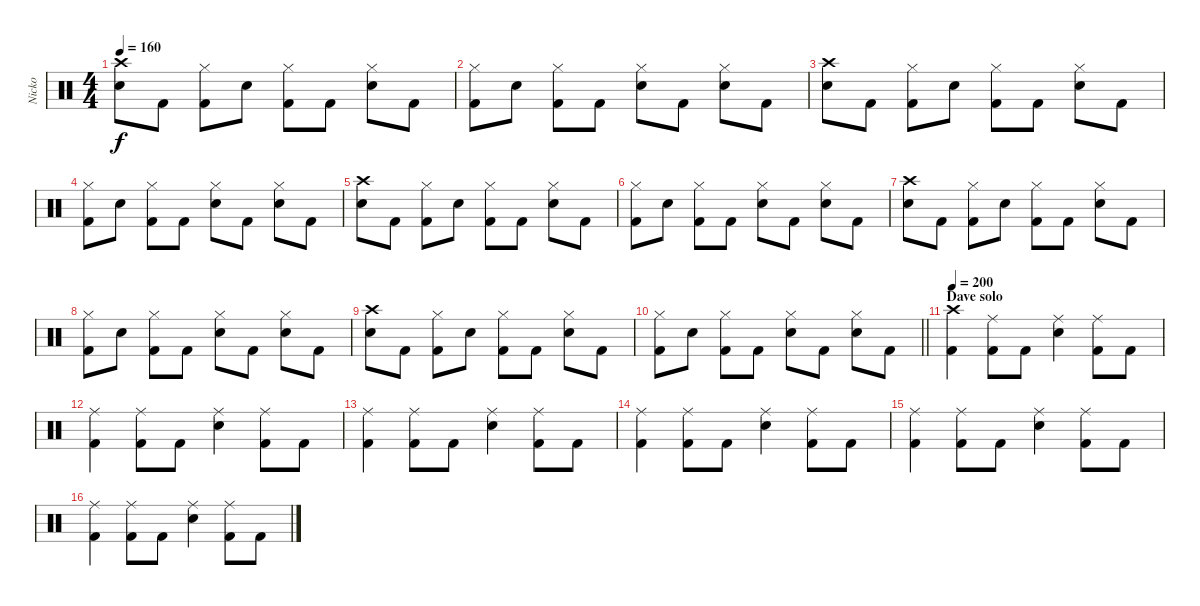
\track ("Nicko" "Nicko") {instrument percussion}
\staff {score}
\articulation defaults
\ts (4 4)
\tempo 160
\clef neutral
\ks c
("Crash high (hit)" "Snare (hit) 2").8{dy f} "Kick (hit) 2".8 ("Hi-Hat (closed)" "Kick (hit) 2").8 "Snare (hit) 2".8 ("Hi-Hat (closed)" "Kick (hit) 2").8 "Kick (hit) 2".8 ("Hi-Hat (closed)" "Snare (hit) 2").8 "Kick (hit) 2".8 |
("Hi-Hat (closed)" "Kick (hit) 2").8 "Snare (hit) 2".8 ("Hi-Hat (closed)" "Kick (hit) 2").8 "Kick (hit) 2".8 ("Hi-Hat (closed)" "Snare (hit) 2").8 "Kick (hit) 2".8 ("Hi-Hat (closed)" "Snare (hit) 2").8 "Kick (hit) 2".8 |
("Crash high (hit)" "Snare (hit) 2").8 "Kick (hit) 2".8 ("Hi-Hat (closed)" "Kick (hit) 2").8 "Snare (hit) 2".8 ("Hi-Hat (closed)" "Kick (hit) 2").8 "Kick (hit) 2".8 ("Hi-Hat (closed)" "Snare (hit) 2").8 "Kick (hit) 2".8 |
("Hi-Hat (closed)" "Kick (hit) 2").8 "Snare (hit) 2".8 ("Hi-Hat (closed)" "Kick (hit) 2").8 "Kick (hit) 2".8 ("Hi-Hat (closed)" "Snare (hit) 2").8 "Kick (hit) 2".8 ("Hi-Hat (closed)" "Snare (hit) 2").8 "Kick (hit) 2".8 |
("Crash high (hit)" "Snare (hit) 2").8 "Kick (hit) 2".8 ("Hi-Hat (closed)" "Kick (hit) 2").8 "Snare (hit) 2".8 ("Hi-Hat (closed)" "Kick (hit) 2").8 "Kick (hit) 2".8 ("Hi-Hat (closed)" "Snare (hit) 2").8 "Kick (hit) 2".8 |
("Hi-Hat (closed)" "Kick (hit) 2").8 "Snare (hit) 2".8 ("Hi-Hat (closed)" "Kick (hit) 2").8 "Kick (hit) 2".8 ("Hi-Hat (closed)" "Snare (hit) 2").8 "Kick (hit) 2".8 ("Hi-Hat (closed)" "Snare (hit) 2").8 "Kick (hit) 2".8 |
("Crash high (hit)" "Snare (hit) 2").8 "Kick (hit) 2".8 ("Hi-Hat (closed)" "Kick (hit) 2").8 "Snare (hit) 2".8 ("Hi-Hat (closed)" "Kick (hit) 2").8 "Kick (hit) 2".8 ("Hi-Hat (closed)" "Snare (hit) 2").8 "Kick (hit) 2".8 |
("Hi-Hat (closed)" "Kick (hit) 2").8 "Snare (hit) 2".8 ("Hi-Hat (closed)" "Kick (hit) 2").8 "Kick (hit) 2".8 ("Hi-Hat (closed)" "Snare (hit) 2").8 "Kick (hit) 2".8 ("Hi-Hat (closed)" "Snare (hit) 2").8 "Kick (hit) 2".8 |
("Crash high (hit)" "Snare (hit) 2").8 "Kick (hit) 2".8 ("Hi-Hat (closed)" "Kick (hit) 2").8 "Snare (hit) 2".8 ("Hi-Hat (closed)" "Kick (hit) 2").8 "Kick (hit) 2".8 ("Hi-Hat (closed)" "Snare (hit) 2").8 "Kick (hit) 2".8 |
\barLineRight lightlight
("Hi-Hat (closed)" "Kick (hit) 2").8 "Snare (hit) 2".8 ("Hi-Hat (closed)" "Kick (hit) 2").8 "Kick (hit) 2".8 ("Hi-Hat (closed)" "Snare (hit) 2").8 "Kick (hit) 2".8 ("Hi-Hat (closed)" "Snare (hit) 2").8 "Kick (hit) 2".8 |
\section ("" "Dave solo")
\tempo 200
("Crash high (hit)" "Kick (hit) 2").4 ("Ride (middle)" "Kick (hit) 2").8 "Kick (hit) 2".8 ("Ride (middle)" "Snare (hit) 2").4 ("Ride (middle)" "Kick (hit) 2").8 "Kick (hit) 2".8 |
("Ride (middle)" "Kick (hit) 2").4 ("Ride (middle)" "Kick (hit) 2").8 "Kick (hit) 2".8 ("Ride (middle)" "Snare (hit) 2").4 ("Ride (middle)" "Kick (hit) 2").8 "Kick (hit) 2".8 |
("Ride (middle)" "Kick (hit) 2").4 ("Ride (middle)" "Kick (hit) 2").8 "Kick (hit) 2".8 ("Ride (middle)" "Snare (hit) 2").4 ("Ride (middle)" "Kick (hit) 2").8 "Kick (hit) 2".8 |
("Ride (middle)" "Kick (hit) 2").4 ("Ride (middle)" "Kick (hit) 2").8 "Kick (hit) 2".8 ("Ride (middle)" "Snare (hit) 2").4 ("Ride (middle)" "Kick (hit) 2").8 "Kick (hit) 2".8 |
("Ride (middle)" "Kick (hit) 2").4 ("Ride (middle)" "Kick (hit) 2").8 "Kick (hit) 2".8 ("Ride (middle)" "Snare (hit) 2").4 ("Ride (middle)" "Kick (hit) 2").8 "Kick (hit) 2".8 |
("Ride (middle)" "Kick (hit) 2").4 ("Ride (middle)" "Kick (hit) 2").8 "Kick (hit) 2".8 ("Ride (middle)" "Snare (hit) 2").4 ("Ride (middle)" "Kick (hit) 2").8 "Kick (hit) 2".8
